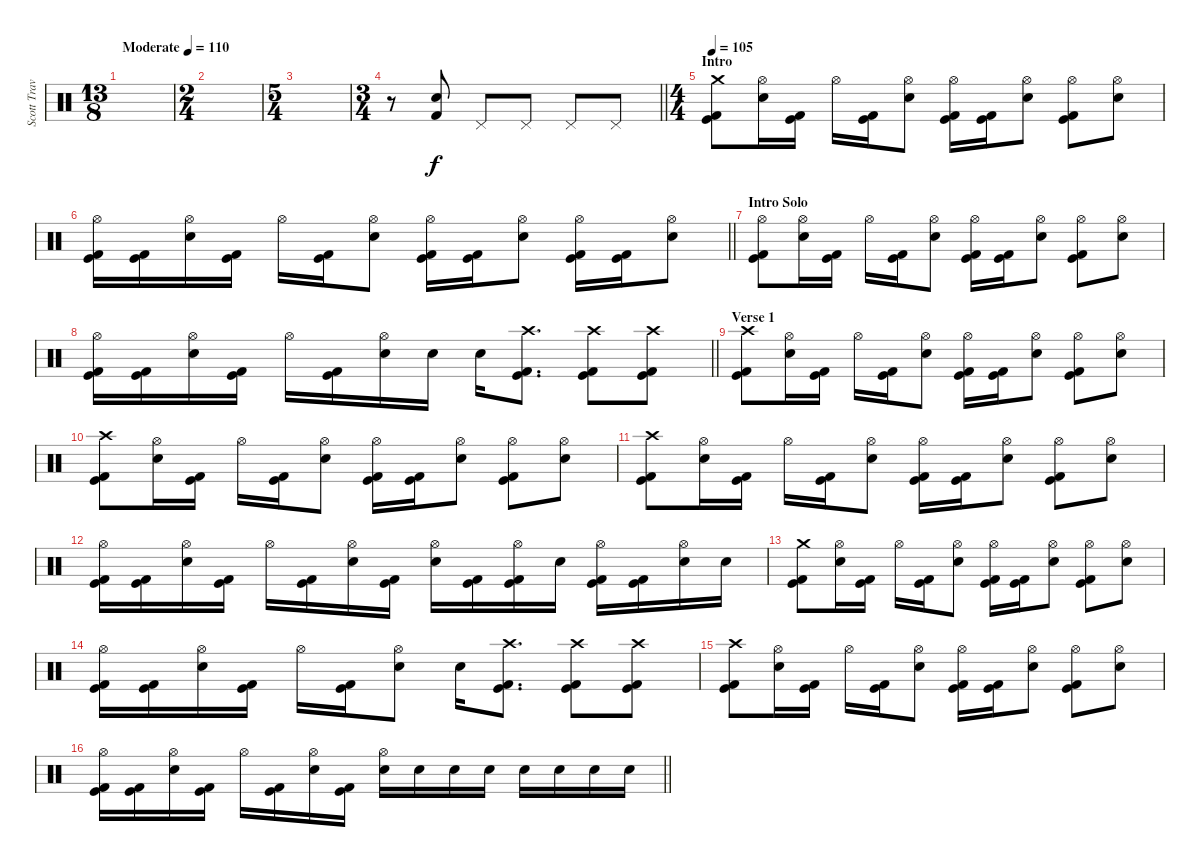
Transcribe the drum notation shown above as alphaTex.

\track ("Scott Travis" "Scott Trav") {instrument percussion}
\staff {score}
\articulation defaults
\ts (13 8)
\tempo (110 "Moderate")
\clef neutral
\ks c
|
\ts (2 4)
|
\ts (5 4)
|
\ts (3 4)
\barLineRight lightlight
r.8 ("Snare (hit) 2" "Kick (hit) 2").8 "Pedal Hi-Hat (hit)".8 "Pedal Hi-Hat (hit)".8 "Pedal Hi-Hat (hit)".8 "Pedal Hi-Hat (hit)".8 |
\ts (4 4)
\section ("" "Intro")
\tempo 105
("Crash medium (hit)" "Kick (hit) 2" "Kick (hit)").8 ("Hi-Hat (open)" "Snare (hit) 2").16 ("Kick (hit) 2" "Kick (hit)").16 "Hi-Hat (open)".16 ("Kick (hit) 2" "Kick (hit)").16 ("Hi-Hat (open)" "Snare (hit) 2").8 ("Hi-Hat (open)" "Kick (hit) 2" "Kick (hit)").16 ("Kick (hit) 2" "Kick (hit)").16 ("Hi-Hat (open)" "Snare (hit) 2").8 ("Hi-Hat (open)" "Kick (hit) 2" "Kick (hit)").8 ("Hi-Hat (open)" "Snare (hit) 2").8 |
\barLineRight lightlight
("Hi-Hat (open)" "Kick (hit) 2" "Kick (hit)").16 ("Kick (hit) 2" "Kick (hit)").16 ("Hi-Hat (open)" "Snare (hit) 2").16 ("Kick (hit) 2" "Kick (hit)").16 "Hi-Hat (open)".16 ("Kick (hit) 2" "Kick (hit)").16 ("Hi-Hat (open)" "Snare (hit) 2").8 ("Hi-Hat (open)" "Kick (hit) 2" "Kick (hit)").16 ("Kick (hit) 2" "Kick (hit)").16 ("Hi-Hat (open)" "Snare (hit) 2").8 ("Hi-Hat (open)" "Kick (hit) 2" "Kick (hit)").16 ("Kick (hit) 2" "Kick (hit)").16 ("Hi-Hat (open)" "Snare (hit) 2").8 |
\section ("" "Intro Solo")
("Hi-Hat (open)" "Kick (hit) 2" "Kick (hit)").8 ("Hi-Hat (open)" "Snare (hit) 2").16 ("Kick (hit) 2" "Kick (hit)").16 "Hi-Hat (open)".16 ("Kick (hit) 2" "Kick (hit)").16 ("Hi-Hat (open)" "Snare (hit) 2").8 ("Hi-Hat (open)" "Kick (hit) 2" "Kick (hit)").16 ("Kick (hit) 2" "Kick (hit)").16 ("Hi-Hat (open)" "Snare (hit) 2").8 ("Hi-Hat (open)" "Kick (hit) 2" "Kick (hit)").8 ("Hi-Hat (open)" "Snare (hit) 2").8 |
\barLineRight lightlight
("Hi-Hat (open)" "Kick (hit) 2" "Kick (hit)").16 ("Kick (hit) 2" "Kick (hit)").16 ("Hi-Hat (open)" "Snare (hit) 2").16 ("Kick (hit) 2" "Kick (hit)").16 "Hi-Hat (open)".16 ("Kick (hit) 2" "Kick (hit)").16 ("Hi-Hat (open)" "Snare (hit) 2").16 "Snare (hit) 2".16 "Snare (hit) 2".16 ("Crash high (hit)" "Kick (hit)" "Kick (hit) 2").8{d} ("Crash high (hit)" "Kick (hit) 2" "Kick (hit)").8 ("Crash high (hit)" "Kick (hit)" "Kick (hit) 2").8 |
\section ("" "Verse 1")
("Crash high (hit)" "Kick (hit) 2" "Kick (hit)").8 ("Hi-Hat (open)" "Snare (hit) 2").16 ("Kick (hit) 2" "Kick (hit)").16 "Hi-Hat (open)".16 ("Kick (hit) 2" "Kick (hit)").16 ("Hi-Hat (open)" "Snare (hit) 2").8 ("Hi-Hat (open)" "Kick (hit) 2" "Kick (hit)").16 ("Kick (hit) 2" "Kick (hit)").16 ("Hi-Hat (open)" "Snare (hit) 2").8 ("Hi-Hat (open)" "Kick (hit) 2" "Kick (hit)").8 ("Hi-Hat (open)" "Snare (hit) 2").8 |
("Crash high (hit)" "Kick (hit) 2" "Kick (hit)").8 ("Hi-Hat (open)" "Snare (hit) 2").16 ("Kick (hit) 2" "Kick (hit)").16 "Hi-Hat (open)".16 ("Kick (hit) 2" "Kick (hit)").16 ("Hi-Hat (open)" "Snare (hit) 2").8 ("Hi-Hat (open)" "Kick (hit) 2" "Kick (hit)").16 ("Kick (hit) 2" "Kick (hit)").16 ("Hi-Hat (open)" "Snare (hit) 2").8 ("Hi-Hat (open)" "Kick (hit) 2" "Kick (hit)").8 ("Hi-Hat (open)" "Snare (hit) 2").8 |
("Crash high (hit)" "Kick (hit) 2" "Kick (hit)").8 ("Hi-Hat (open)" "Snare (hit) 2").16 ("Kick (hit) 2" "Kick (hit)").16 "Hi-Hat (open)".16 ("Kick (hit) 2" "Kick (hit)").16 ("Hi-Hat (open)" "Snare (hit) 2").8 ("Hi-Hat (open)" "Kick (hit) 2" "Kick (hit)").16 ("Kick (hit) 2" "Kick (hit)").16 ("Hi-Hat (open)" "Snare (hit) 2").8 ("Hi-Hat (open)" "Kick (hit) 2" "Kick (hit)").8 ("Hi-Hat (open)" "Snare (hit) 2").8 |
("Hi-Hat (open)" "Kick (hit) 2" "Kick (hit)").16 ("Kick (hit) 2" "Kick (hit)").16 ("Hi-Hat (open)" "Snare (hit) 2").16 ("Kick (hit) 2" "Kick (hit)").16 "Hi-Hat (open)".16 ("Kick (hit) 2" "Kick (hit)").16 ("Hi-Hat (open)" "Snare (hit) 2").16 ("Kick (hit)" "Kick (hit) 2").16 ("Hi-Hat (open)" "Snare (hit) 2").16 ("Kick (hit) 2" "Kick (hit)").16 ("Hi-Hat (open)" "Kick (hit) 2" "Kick (hit)").16 "Snare (hit) 2".16 ("Hi-Hat (open)" "Kick (hit) 2" "Kick (hit)").16 ("Kick (hit) 2" "Kick (hit)").16 ("Hi-Hat (open)" "Snare (hit) 2").16 "Snare (hit) 2".16 |
("Crash medium (hit)" "Kick (hit) 2" "Kick (hit)").8 ("Hi-Hat (open)" "Snare (hit) 2").16 ("Kick (hit) 2" "Kick (hit)").16 "Hi-Hat (open)".16 ("Kick (hit) 2" "Kick (hit)").16 ("Hi-Hat (open)" "Snare (hit) 2").8 ("Hi-Hat (open)" "Kick (hit) 2" "Kick (hit)").16 ("Kick (hit) 2" "Kick (hit)").16 ("Hi-Hat (open)" "Snare (hit) 2").8 ("Hi-Hat (open)" "Kick (hit) 2" "Kick (hit)").8 ("Hi-Hat (open)" "Snare (hit) 2").8 |
("Hi-Hat (open)" "Kick (hit) 2" "Kick (hit)").16 ("Kick (hit) 2" "Kick (hit)").16 ("Hi-Hat (open)" "Snare (hit) 2").16 ("Kick (hit) 2" "Kick (hit)").16 "Hi-Hat (open)".16 ("Kick (hit) 2" "Kick (hit)").16 ("Hi-Hat (open)" "Snare (hit) 2").8 "Snare (hit) 2".16 ("Crash high (hit)" "Kick (hit)" "Kick (hit) 2").8{d} ("Crash high (hit)" "Kick (hit) 2" "Kick (hit)").8 ("Crash high (hit)" "Kick (hit)" "Kick (hit) 2").8 |
("Crash high (hit)" "Kick (hit) 2" "Kick (hit)").8 ("Hi-Hat (open)" "Snare (hit) 2").16 ("Kick (hit) 2" "Kick (hit)").16 "Hi-Hat (open)".16 ("Kick (hit) 2" "Kick (hit)").16 ("Hi-Hat (open)" "Snare (hit) 2").8 ("Hi-Hat (open)" "Kick (hit) 2" "Kick (hit)").16 ("Kick (hit) 2" "Kick (hit)").16 ("Hi-Hat (open)" "Snare (hit) 2").8 ("Hi-Hat (open)" "Kick (hit) 2" "Kick (hit)").8 ("Hi-Hat (open)" "Snare (hit) 2").8 |
\barLineRight lightlight
("Hi-Hat (open)" "Kick (hit) 2" "Kick (hit)").16 ("Kick (hit) 2" "Kick (hit)").16 ("Hi-Hat (open)" "Snare (hit) 2").16 ("Kick (hit) 2" "Kick (hit)").16 "Hi-Hat (open)".16 ("Kick (hit) 2" "Kick (hit)").16 ("Hi-Hat (open)" "Snare (hit) 2").16 ("Kick (hit)" "Kick (hit) 2").16 ("Hi-Hat (open)" "Snare (hit) 2").16 "Snare (hit) 2".16 "Snare (hit) 2".16 "Snare (hit) 2".16 "Snare (hit) 2".16 "Snare (hit) 2".16 "Snare (hit) 2".16 "Snare (hit) 2".16
